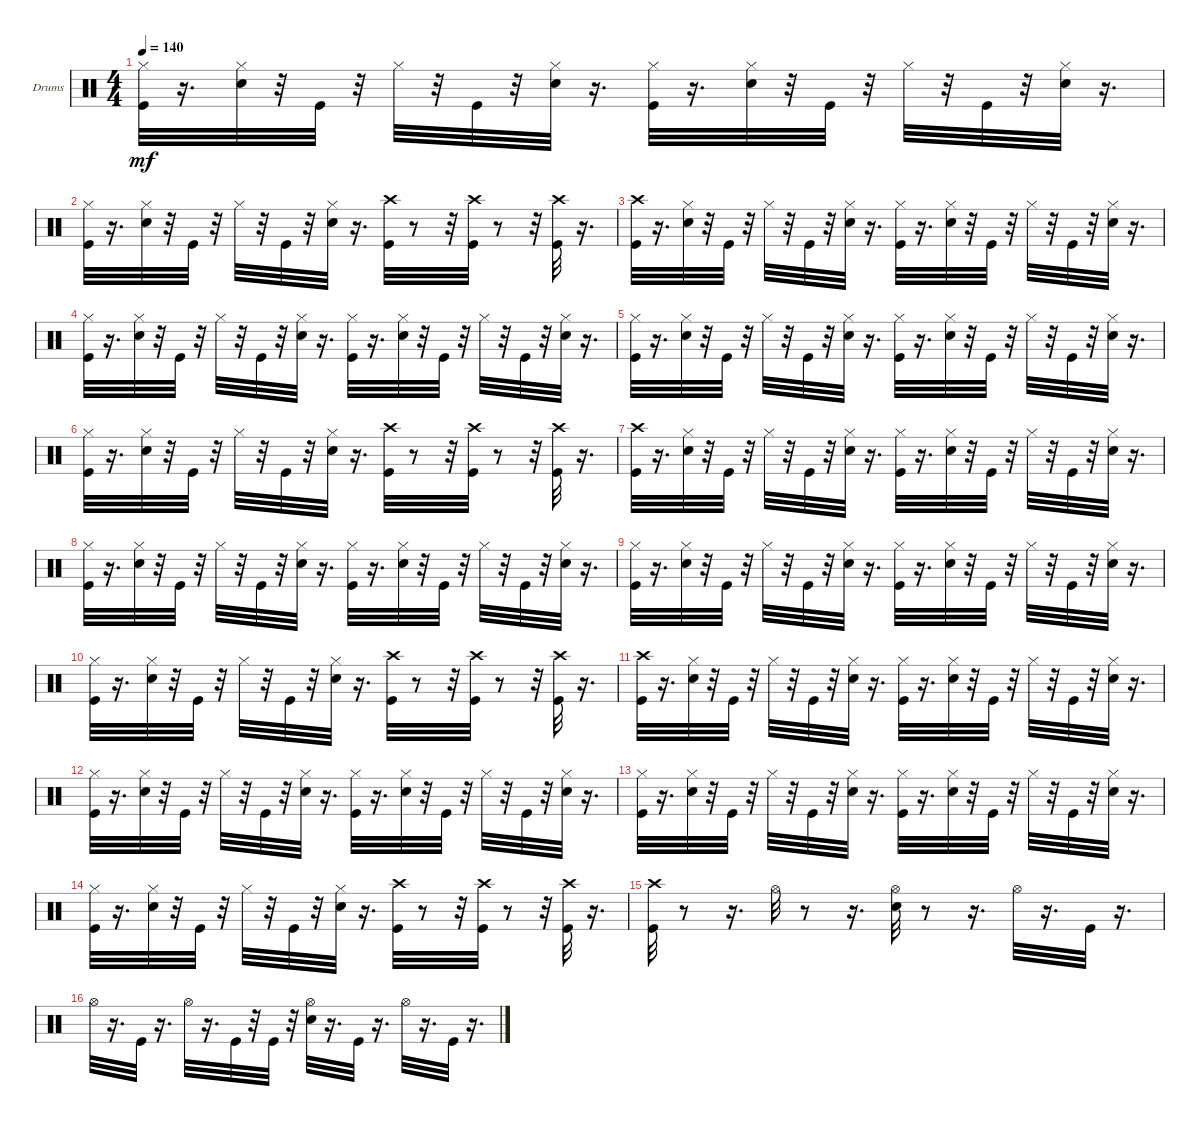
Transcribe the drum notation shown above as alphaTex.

\bracketExtendMode groupsimilarinstruments
\firstSystemTrackNameOrientation horizontal
\otherSystemsTrackNameOrientation horizontal
\track ("" "Drums") {instrument percussion}
\staff {score}
\articulation defaults
\ts (4 4)
\tempo 140
\clef neutral
\ks c
("Hi-Hat (closed)" "Kick (hit)").32{dy mf} r.16{d} ("Snare (hit) 2" "Hi-Hat (closed)").32 r.32 "Kick (hit)".32 r.32 "Hi-Hat (closed)".32 r.32 "Kick (hit)".32 r.32 ("Snare (hit) 2" "Hi-Hat (closed)").32 r.16{d} ("Kick (hit)" "Hi-Hat (closed)").32 r.16{d} ("Snare (hit) 2" "Hi-Hat (closed)").32 r.32 "Kick (hit)".32 r.32 "Hi-Hat (closed)".32 r.32 "Kick (hit)".32 r.32 ("Snare (hit) 2" "Hi-Hat (closed)").32 r.16{d} |
("Hi-Hat (closed)" "Kick (hit)").32 r.16{d} ("Snare (hit) 2" "Hi-Hat (closed)").32 r.32 "Kick (hit)".32 r.32 "Hi-Hat (closed)".32 r.32 "Kick (hit)".32 r.32 ("Snare (hit) 2" "Hi-Hat (closed)").32 r.16{d} ("Crash high (hit)" "Kick (hit)").32 r.8 r.32 ("Crash high (hit)" "Kick (hit)").32 r.8 r.32 ("Crash high (hit)" "Kick (hit)").32 r.16{d} |
("Crash high (hit)" "Kick (hit)").32 r.16{d} ("Snare (hit) 2" "Hi-Hat (closed)").32 r.32 "Kick (hit)".32 r.32 "Hi-Hat (closed)".32 r.32 "Kick (hit)".32 r.32 ("Snare (hit) 2" "Hi-Hat (closed)").32 r.16{d} ("Kick (hit)" "Hi-Hat (closed)").32 r.16{d} ("Snare (hit) 2" "Hi-Hat (closed)").32 r.32 "Kick (hit)".32 r.32 "Hi-Hat (closed)".32 r.32 "Kick (hit)".32 r.32 ("Snare (hit) 2" "Hi-Hat (closed)").32 r.16{d} |
("Hi-Hat (closed)" "Kick (hit)").32 r.16{d} ("Snare (hit) 2" "Hi-Hat (closed)").32 r.32 "Kick (hit)".32 r.32 "Hi-Hat (closed)".32 r.32 "Kick (hit)".32 r.32 ("Snare (hit) 2" "Hi-Hat (closed)").32 r.16{d} ("Kick (hit)" "Hi-Hat (closed)").32 r.16{d} ("Snare (hit) 2" "Hi-Hat (closed)").32 r.32 "Kick (hit)".32 r.32 "Hi-Hat (closed)".32 r.32 "Kick (hit)".32 r.32 ("Snare (hit) 2" "Hi-Hat (closed)").32 r.16{d} |
("Hi-Hat (closed)" "Kick (hit)").32 r.16{d} ("Snare (hit) 2" "Hi-Hat (closed)").32 r.32 "Kick (hit)".32 r.32 "Hi-Hat (closed)".32 r.32 "Kick (hit)".32 r.32 ("Snare (hit) 2" "Hi-Hat (closed)").32 r.16{d} ("Kick (hit)" "Hi-Hat (closed)").32 r.16{d} ("Snare (hit) 2" "Hi-Hat (closed)").32 r.32 "Kick (hit)".32 r.32 "Hi-Hat (closed)".32 r.32 "Kick (hit)".32 r.32 ("Snare (hit) 2" "Hi-Hat (closed)").32 r.16{d} |
("Hi-Hat (closed)" "Kick (hit)").32 r.16{d} ("Snare (hit) 2" "Hi-Hat (closed)").32 r.32 "Kick (hit)".32 r.32 "Hi-Hat (closed)".32 r.32 "Kick (hit)".32 r.32 ("Snare (hit) 2" "Hi-Hat (closed)").32 r.16{d} ("Crash high (hit)" "Kick (hit)").32 r.8 r.32 ("Crash high (hit)" "Kick (hit)").32 r.8 r.32 ("Crash high (hit)" "Kick (hit)").32 r.16{d} |
("Crash high (hit)" "Kick (hit)").32 r.16{d} ("Snare (hit) 2" "Hi-Hat (closed)").32 r.32 "Kick (hit)".32 r.32 "Hi-Hat (closed)".32 r.32 "Kick (hit)".32 r.32 ("Snare (hit) 2" "Hi-Hat (closed)").32 r.16{d} ("Kick (hit)" "Hi-Hat (closed)").32 r.16{d} ("Snare (hit) 2" "Hi-Hat (closed)").32 r.32 "Kick (hit)".32 r.32 "Hi-Hat (closed)".32 r.32 "Kick (hit)".32 r.32 ("Snare (hit) 2" "Hi-Hat (closed)").32 r.16{d} |
("Hi-Hat (closed)" "Kick (hit)").32 r.16{d} ("Snare (hit) 2" "Hi-Hat (closed)").32 r.32 "Kick (hit)".32 r.32 "Hi-Hat (closed)".32 r.32 "Kick (hit)".32 r.32 ("Snare (hit) 2" "Hi-Hat (closed)").32 r.16{d} ("Kick (hit)" "Hi-Hat (closed)").32 r.16{d} ("Snare (hit) 2" "Hi-Hat (closed)").32 r.32 "Kick (hit)".32 r.32 "Hi-Hat (closed)".32 r.32 "Kick (hit)".32 r.32 ("Snare (hit) 2" "Hi-Hat (closed)").32 r.16{d} |
("Hi-Hat (closed)" "Kick (hit)").32 r.16{d} ("Snare (hit) 2" "Hi-Hat (closed)").32 r.32 "Kick (hit)".32 r.32 "Hi-Hat (closed)".32 r.32 "Kick (hit)".32 r.32 ("Snare (hit) 2" "Hi-Hat (closed)").32 r.16{d} ("Kick (hit)" "Hi-Hat (closed)").32 r.16{d} ("Snare (hit) 2" "Hi-Hat (closed)").32 r.32 "Kick (hit)".32 r.32 "Hi-Hat (closed)".32 r.32 "Kick (hit)".32 r.32 ("Snare (hit) 2" "Hi-Hat (closed)").32 r.16{d} |
("Hi-Hat (closed)" "Kick (hit)").32 r.16{d} ("Snare (hit) 2" "Hi-Hat (closed)").32 r.32 "Kick (hit)".32 r.32 "Hi-Hat (closed)".32 r.32 "Kick (hit)".32 r.32 ("Snare (hit) 2" "Hi-Hat (closed)").32 r.16{d} ("Crash high (hit)" "Kick (hit)").32 r.8 r.32 ("Crash high (hit)" "Kick (hit)").32 r.8 r.32 ("Crash high (hit)" "Kick (hit)").32 r.16{d} |
("Crash high (hit)" "Kick (hit)").32 r.16{d} ("Snare (hit) 2" "Hi-Hat (closed)").32 r.32 "Kick (hit)".32 r.32 "Hi-Hat (closed)".32 r.32 "Kick (hit)".32 r.32 ("Snare (hit) 2" "Hi-Hat (closed)").32 r.16{d} ("Kick (hit)" "Hi-Hat (closed)").32 r.16{d} ("Snare (hit) 2" "Hi-Hat (closed)").32 r.32 "Kick (hit)".32 r.32 "Hi-Hat (closed)".32 r.32 "Kick (hit)".32 r.32 ("Snare (hit) 2" "Hi-Hat (closed)").32 r.16{d} |
("Hi-Hat (closed)" "Kick (hit)").32 r.16{d} ("Snare (hit) 2" "Hi-Hat (closed)").32 r.32 "Kick (hit)".32 r.32 "Hi-Hat (closed)".32 r.32 "Kick (hit)".32 r.32 ("Snare (hit) 2" "Hi-Hat (closed)").32 r.16{d} ("Kick (hit)" "Hi-Hat (closed)").32 r.16{d} ("Snare (hit) 2" "Hi-Hat (closed)").32 r.32 "Kick (hit)".32 r.32 "Hi-Hat (closed)".32 r.32 "Kick (hit)".32 r.32 ("Snare (hit) 2" "Hi-Hat (closed)").32 r.16{d} |
("Hi-Hat (closed)" "Kick (hit)").32 r.16{d} ("Snare (hit) 2" "Hi-Hat (closed)").32 r.32 "Kick (hit)".32 r.32 "Hi-Hat (closed)".32 r.32 "Kick (hit)".32 r.32 ("Snare (hit) 2" "Hi-Hat (closed)").32 r.16{d} ("Kick (hit)" "Hi-Hat (closed)").32 r.16{d} ("Snare (hit) 2" "Hi-Hat (closed)").32 r.32 "Kick (hit)".32 r.32 "Hi-Hat (closed)".32 r.32 "Kick (hit)".32 r.32 ("Snare (hit) 2" "Hi-Hat (closed)").32 r.16{d} |
("Hi-Hat (closed)" "Kick (hit)").32 r.16{d} ("Snare (hit) 2" "Hi-Hat (closed)").32 r.32 "Kick (hit)".32 r.32 "Hi-Hat (closed)".32 r.32 "Kick (hit)".32 r.32 ("Snare (hit) 2" "Hi-Hat (closed)").32 r.16{d} ("Crash high (hit)" "Kick (hit)").32 r.8 r.32 ("Crash high (hit)" "Kick (hit)").32 r.8 r.32 ("Crash high (hit)" "Kick (hit)").32 r.16{d} |
("Crash high (hit)" "Kick (hit)").32 r.8 r.16{d} "Hi-Hat (open)".32 r.8 r.16{d} ("Hi-Hat (open)" "Snare (hit) 2").32 r.8 r.16{d} "Hi-Hat (open)".32 r.16{d} "Kick (hit)".32 r.16{d} |
"Hi-Hat (open)".32 r.16{d} "Kick (hit)".32 r.16{d} "Hi-Hat (open)".32 r.16{d} "Kick (hit)".32 r.32 "Kick (hit)".32 r.32 ("Hi-Hat (open)" "Snare (hit) 2").32 r.16{d} "Kick (hit)".32 r.16{d} "Hi-Hat (open)".32 r.16{d} "Kick (hit)".32 r.16{d}
